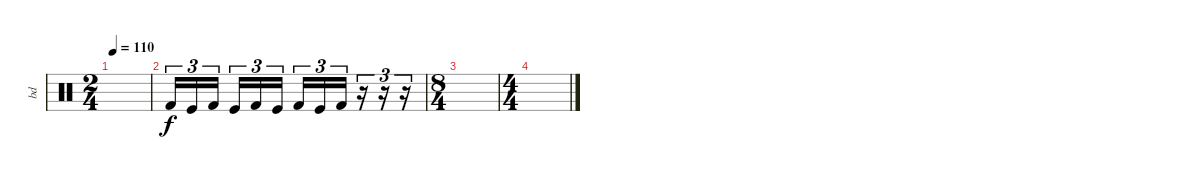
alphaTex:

\track ("bd" "bd") {instrument percussion}
\staff
\articulation defaults
\ts (2 4)
\tempo 110
\clef neutral
\ks c
|
"Kick (hit) 2".16{tu (3 2)} "Kick (hit)".16{tu (3 2)} "Kick (hit) 2".16{tu (3 2) beam splitsecondary} "Kick (hit)".16{tu (3 2)} "Kick (hit) 2".16{tu (3 2)} "Kick (hit)".16{tu (3 2)} "Kick (hit) 2".16{tu (3 2)} "Kick (hit)".16{tu (3 2)} "Kick (hit) 2".16{tu (3 2)} r.16{tu (3 2)} r.16{tu (3 2)} r.16{tu (3 2)} |
\ts (8 4)
|
\ts (4 4)
